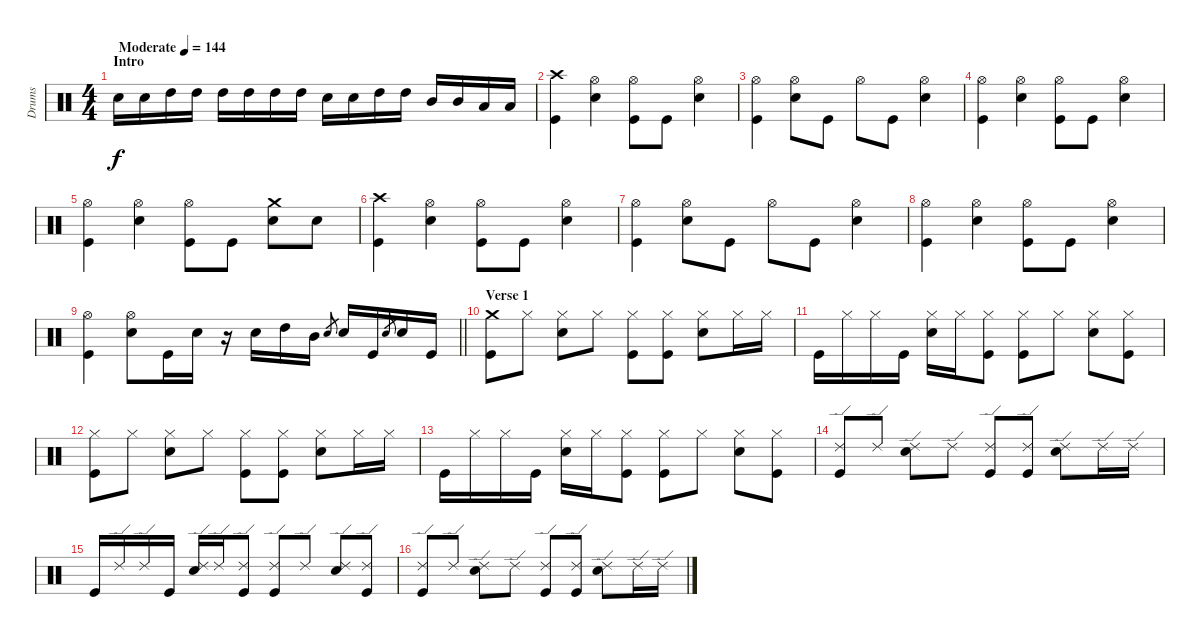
\track ("Drums" "Drums") {instrument percussion}
\staff {score}
\articulation defaults
\ts (4 4)
\section ("" "Intro")
\tempo (144 "Moderate")
\clef neutral
\ks c "Snare (hit) 2".16{dy f} "Snare (hit) 2".16 "High Tom (hit)".16 "High Tom (hit)".16 "High Tom (hit)".16 "High Tom (hit)".16 "High Tom (hit)".16 "High Tom (hit)".16 "Snare (hit) 2".16 "Snare (hit) 2".16 "High Tom (hit)".16 "High Tom (hit)".16 "Mid Tom (hit)".16 "Mid Tom (hit)".16 "Low Tom (hit)".16 "Low Tom (hit)".16
|
("Crash high (hit)" "Kick (hit)").4 ("Hi-Hat (open)" "Snare (hit) 2").4 ("Hi-Hat (open)" "Kick (hit)").8 "Kick (hit)".8 ("Hi-Hat (open)" "Snare (hit) 2").4 |
("Hi-Hat (open)" "Kick (hit)").4 ("Hi-Hat (open)" "Snare (hit) 2").8 "Kick (hit)".8 "Hi-Hat (open)".8 "Kick (hit)".8 ("Hi-Hat (open)" "Snare (hit) 2").4 |
("Hi-Hat (open)" "Kick (hit)").4 ("Hi-Hat (open)" "Snare (hit) 2").4 ("Hi-Hat (open)" "Kick (hit)").8 "Kick (hit)".8 ("Hi-Hat (open)" "Snare (hit) 2").4 |
("Hi-Hat (open)" "Kick (hit)").4 ("Hi-Hat (open)" "Snare (hit) 2").4 ("Hi-Hat (open)" "Kick (hit)").8 "Kick (hit)".8 ("Crash medium (hit)" "Snare (hit) 2").8 "Snare (hit) 2".8 |
("Crash high (hit)" "Kick (hit)").4 ("Hi-Hat (open)" "Snare (hit) 2").4 ("Hi-Hat (open)" "Kick (hit)").8 "Kick (hit)".8 ("Hi-Hat (open)" "Snare (hit) 2").4 |
("Hi-Hat (open)" "Kick (hit)").4 ("Hi-Hat (open)" "Snare (hit) 2").8 "Kick (hit)".8 "Hi-Hat (open)".8 "Kick (hit)".8 ("Hi-Hat (open)" "Snare (hit) 2").4 |
("Hi-Hat (open)" "Kick (hit)").4 ("Hi-Hat (open)" "Snare (hit) 2").4 ("Hi-Hat (open)" "Kick (hit)").8 "Kick (hit)".8 ("Hi-Hat (open)" "Snare (hit) 2").4 |
\barLineRight lightlight
("Hi-Hat (open)" "Kick (hit)").4 ("Hi-Hat (open)" "Snare (hit) 2").8 "Kick (hit)".16 "Snare (hit) 2".16 r.16 "Snare (hit) 2".16 "High Tom (hit)".16 "Mid Tom (hit)".16 "Snare (hit) 2".8{gr} "Snare (hit) 2".16 "Kick (hit)".16 "Snare (hit) 2".8{gr} "Snare (hit) 2".16 "Kick (hit)".16 |
\section ("" "Verse 1")
("Crash medium (hit)" "Kick (hit)").8 "Hi-Hat (closed)".8 ("Hi-Hat (closed)" "Snare (hit) 2").8 "Hi-Hat (closed)".8 ("Hi-Hat (closed)" "Kick (hit)").8 ("Hi-Hat (closed)" "Kick (hit)").8 ("Hi-Hat (closed)" "Snare (hit) 2").8 "Hi-Hat (closed)".16 "Hi-Hat (closed)".16 |
"Kick (hit)".16 "Hi-Hat (closed)".16 "Hi-Hat (closed)".16 "Kick (hit)".16 ("Hi-Hat (closed)" "Snare (hit) 2").16 "Hi-Hat (closed)".16 ("Hi-Hat (closed)" "Kick (hit)").8 ("Hi-Hat (closed)" "Kick (hit)").8 "Hi-Hat (closed)".8 ("Hi-Hat (closed)" "Snare (hit) 2").8 ("Hi-Hat (closed)" "Kick (hit)").8 |
("Hi-Hat (closed)" "Kick (hit)").8 "Hi-Hat (closed)".8 ("Hi-Hat (closed)" "Snare (hit) 2").8 "Hi-Hat (closed)".8 ("Hi-Hat (closed)" "Kick (hit)").8 ("Hi-Hat (closed)" "Kick (hit)").8 ("Hi-Hat (closed)" "Snare (hit) 2").8 "Hi-Hat (closed)".16 "Hi-Hat (closed)".16 |
"Kick (hit)".16 "Hi-Hat (closed)".16 "Hi-Hat (closed)".16 "Kick (hit)".16 ("Hi-Hat (closed)" "Snare (hit) 2").16 "Hi-Hat (closed)".16 ("Hi-Hat (closed)" "Kick (hit)").8 ("Hi-Hat (closed)" "Kick (hit)").8 "Hi-Hat (closed)".8 ("Hi-Hat (closed)" "Snare (hit) 2").8 ("Hi-Hat (closed)" "Kick (hit)").8 |
("Ride (edge) 2" "Kick (hit)").8 "Ride (edge) 2".8 ("Ride (edge) 2" "Snare (hit) 2").8 "Ride (edge) 2".8 ("Ride (edge) 2" "Kick (hit)").8 ("Ride (edge) 2" "Kick (hit)").8 ("Ride (edge) 2" "Snare (hit) 2").8 "Ride (edge) 2".16 "Ride (edge) 2".16 |
"Kick (hit)".16 "Ride (edge) 2".16 "Ride (edge) 2".16 "Kick (hit)".16 ("Ride (edge) 2" "Snare (hit) 2").16 "Ride (edge) 2".16 ("Ride (edge) 2" "Kick (hit)").8 ("Ride (edge) 2" "Kick (hit)").8 "Ride (edge) 2".8 ("Ride (edge) 2" "Snare (hit) 2").8 ("Ride (edge) 2" "Kick (hit)").8 |
("Ride (edge) 2" "Kick (hit)").8 "Ride (edge) 2".8 ("Ride (edge) 2" "Snare (hit) 2").8 "Ride (edge) 2".8 ("Ride (edge) 2" "Kick (hit)").8 ("Ride (edge) 2" "Kick (hit)").8 ("Ride (edge) 2" "Snare (hit) 2").8 "Ride (edge) 2".16 "Ride (edge) 2".16
